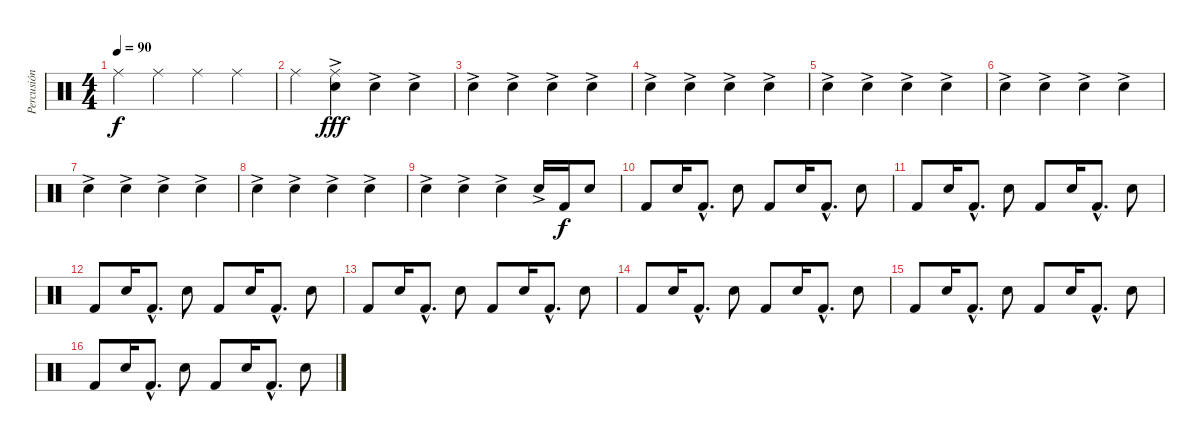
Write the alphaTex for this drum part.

\track ("Percusión" "Percusión") {instrument percussion}
\staff {score}
\articulation defaults
\ts (4 4)
\tempo 90
\clef neutral
\ks c "Ride (middle)".4{dy f} "Ride (middle)".4 "Ride (middle)".4 "Ride (middle)".4
|
"Ride (middle)".4 ("Ride (middle)" "Hand Clap (hit)"{ac}).4{dy fff} "Hand Clap (hit)"{ac}.4 "Hand Clap (hit)"{ac}.4 |
"Hand Clap (hit)"{ac}.4 "Hand Clap (hit)"{ac}.4 "Hand Clap (hit)"{ac}.4 "Hand Clap (hit)"{ac}.4 |
"Hand Clap (hit)"{ac}.4 "Hand Clap (hit)"{ac}.4 "Hand Clap (hit)"{ac}.4 "Hand Clap (hit)"{ac}.4 |
"Hand Clap (hit)"{ac}.4 "Hand Clap (hit)"{ac}.4 "Hand Clap (hit)"{ac}.4 "Hand Clap (hit)"{ac}.4 |
"Hand Clap (hit)"{ac}.4 "Hand Clap (hit)"{ac}.4 "Hand Clap (hit)"{ac}.4 "Hand Clap (hit)"{ac}.4 |
"Hand Clap (hit)"{ac}.4 "Hand Clap (hit)"{ac}.4 "Hand Clap (hit)"{ac}.4 "Hand Clap (hit)"{ac}.4 |
"Hand Clap (hit)"{ac}.4 "Hand Clap (hit)"{ac}.4 "Hand Clap (hit)"{ac}.4 "Hand Clap (hit)"{ac}.4 |
"Hand Clap (hit)"{ac}.4 "Hand Clap (hit)"{ac}.4 "Hand Clap (hit)"{ac}.4 "Hand Clap (hit)"{ac}.16 "Kick (hit) 2".16{dy f} "Electric Snare (hit)".8 |
"Kick (hit) 2".8 "Electric Snare (hit)".16 "Kick (hit) 2"{hac}.8{d} "Electric Snare (hit)".8 "Kick (hit) 2".8 "Electric Snare (hit)".16 "Kick (hit) 2"{hac}.8{d} "Electric Snare (hit)".8 |
"Kick (hit) 2".8 "Electric Snare (hit)".16 "Kick (hit) 2"{hac}.8{d} "Electric Snare (hit)".8 "Kick (hit) 2".8 "Electric Snare (hit)".16 "Kick (hit) 2"{hac}.8{d} "Electric Snare (hit)".8 |
"Kick (hit) 2".8 "Electric Snare (hit)".16 "Kick (hit) 2"{hac}.8{d} "Electric Snare (hit)".8 "Kick (hit) 2".8 "Electric Snare (hit)".16 "Kick (hit) 2"{hac}.8{d} "Electric Snare (hit)".8 |
"Kick (hit) 2".8 "Electric Snare (hit)".16 "Kick (hit) 2"{hac}.8{d} "Electric Snare (hit)".8 "Kick (hit) 2".8 "Electric Snare (hit)".16 "Kick (hit) 2"{hac}.8{d} "Electric Snare (hit)".8 |
"Kick (hit) 2".8 "Electric Snare (hit)".16 "Kick (hit) 2"{hac}.8{d} "Electric Snare (hit)".8 "Kick (hit) 2".8 "Electric Snare (hit)".16 "Kick (hit) 2"{hac}.8{d} "Electric Snare (hit)".8 |
"Kick (hit) 2".8 "Electric Snare (hit)".16 "Kick (hit) 2"{hac}.8{d} "Electric Snare (hit)".8 "Kick (hit) 2".8 "Electric Snare (hit)".16 "Kick (hit) 2"{hac}.8{d} "Electric Snare (hit)".8 |
"Kick (hit) 2".8 "Electric Snare (hit)".16 "Kick (hit) 2"{hac}.8{d} "Electric Snare (hit)".8 "Kick (hit) 2".8 "Electric Snare (hit)".16 "Kick (hit) 2"{hac}.8{d} "Electric Snare (hit)".8
